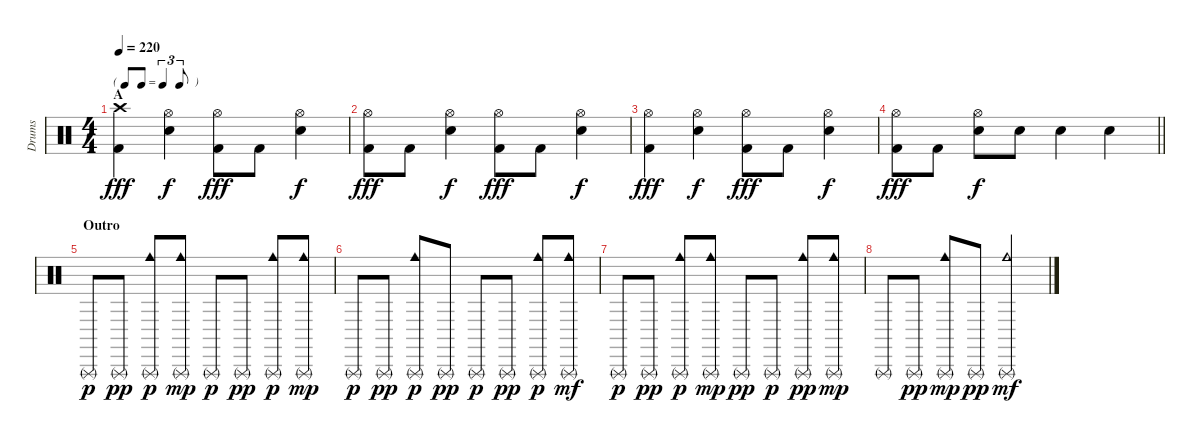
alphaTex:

\track ("Drums" "Drums") {instrument percussion}
\staff {score}
\articulation defaults
\ts (4 4)
\tf triplet8th
\section ("" "A")
\tempo 220
\clef neutral
\ks c
("Crash high (hit)" "Kick (hit) 2").4{dy fff} ("Hi-Hat (open)" "Electric Snare (hit)").4{dy f} ("Hi-Hat (open)" "Kick (hit) 2").8{dy fff} "Kick (hit) 2".8 ("Hi-Hat (open)" "Electric Snare (hit)").4{dy f} |
("Hi-Hat (open)" "Kick (hit) 2").8{dy fff} "Kick (hit) 2".8 ("Hi-Hat (open)" "Electric Snare (hit)").4{dy f} ("Hi-Hat (open)" "Kick (hit) 2").8{dy fff} "Kick (hit) 2".8 ("Hi-Hat (open)" "Electric Snare (hit)").4{dy f} |
("Hi-Hat (open)" "Kick (hit) 2").4{dy fff} ("Hi-Hat (open)" "Electric Snare (hit)").4{dy f} ("Hi-Hat (open)" "Kick (hit) 2").8{dy fff} "Kick (hit) 2".8 ("Hi-Hat (open)" "Electric Snare (hit)").4{dy f} |
\barLineRight lightlight
("Hi-Hat (open)" "Kick (hit) 2").8{dy fff} "Kick (hit) 2".8 ("Hi-Hat (open)" "Electric Snare (hit)").8{dy f} "Electric Snare (hit)".8 "Electric Snare (hit)".4 "Electric Snare (hit)".4 |
\section ("" "Outro")
"Triangle (rnute)".8{dy p} "Triangle (rnute)".8{dy pp} ("Triangle (rnute)" "Cowbell medium (hit)").8{dy p} ("Triangle (rnute)" "Cowbell medium (hit)").8{dy mp} "Triangle (rnute)".8{dy p} "Triangle (rnute)".8{dy pp} ("Triangle (rnute)" "Cowbell medium (hit)").8{dy p} ("Triangle (rnute)" "Cowbell medium (hit)").8{dy mp} |
"Triangle (rnute)".8{dy p} "Triangle (rnute)".8{dy pp} ("Triangle (rnute)" "Cowbell medium (hit)").8{dy p} "Triangle (rnute)".8{dy pp} "Triangle (rnute)".8{dy p} "Triangle (rnute)".8{dy pp} ("Triangle (rnute)" "Cowbell medium (hit)").8{dy p} ("Triangle (rnute)" "Cowbell medium (hit)").8{dy mf} |
"Triangle (rnute)".8{dy p} "Triangle (rnute)".8{dy pp} ("Triangle (rnute)" "Cowbell medium (hit)").8{dy p} ("Triangle (rnute)" "Cowbell medium (hit)").8{dy mp} "Triangle (rnute)".8{dy pp} "Triangle (rnute)".8{dy p} ("Triangle (rnute)" "Cowbell medium (hit)").8{dy pp} ("Triangle (rnute)" "Cowbell medium (hit)").8{dy mp} |
"Triangle (rnute)".8 "Triangle (rnute)".8{dy pp} ("Triangle (rnute)" "Cowbell medium (hit)").8{dy mp} "Triangle (rnute)".8{dy pp} ("Triangle (rnute)" "Cowbell medium (hit)").2{dy mf}
